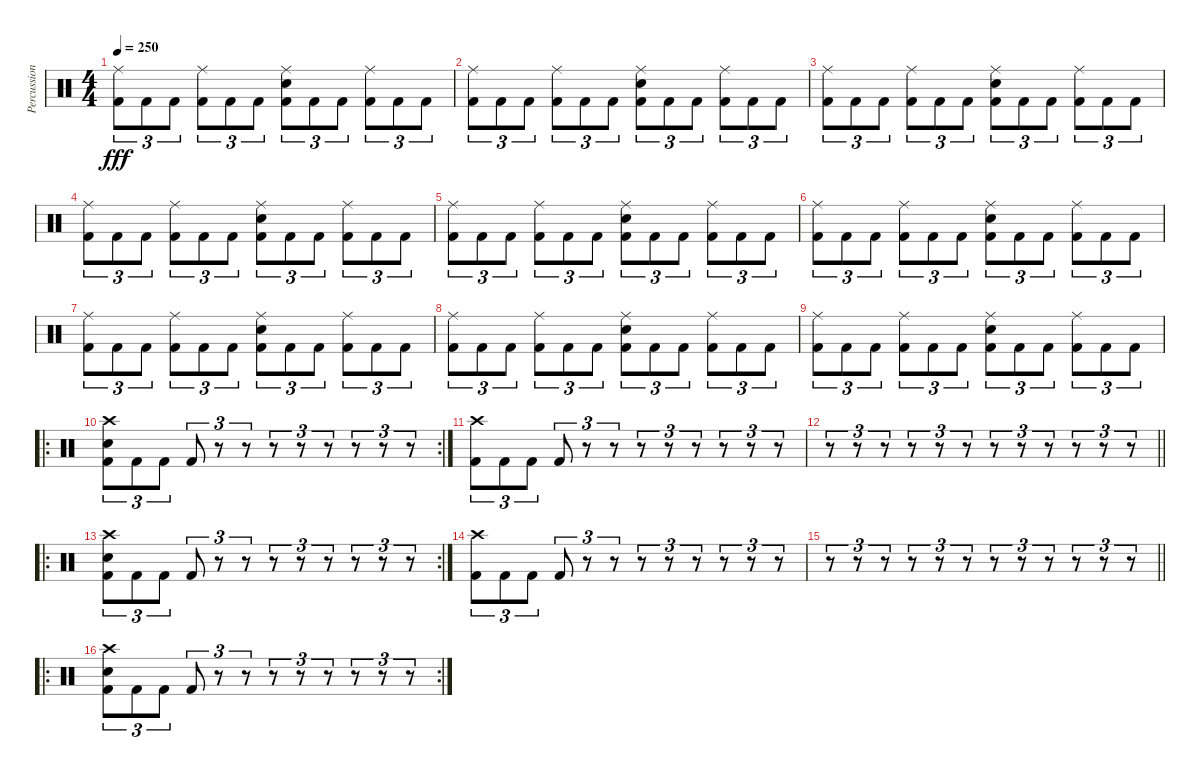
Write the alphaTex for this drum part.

\track ("Percussion" "Percussion") {instrument percussion}
\staff {score}
\articulation defaults
\ts (4 4)
\tempo 250
\clef neutral
\ks c
("Ride (middle)" "Kick (hit) 2").8{tu (3 2) dy fff} "Kick (hit) 2".8{tu (3 2)} "Kick (hit) 2".8{tu (3 2)} ("Ride (middle)" "Kick (hit) 2").8{tu (3 2)} "Kick (hit) 2".8{tu (3 2)} "Kick (hit) 2".8{tu (3 2)} ("Ride (middle)" "Electric Snare (hit)" "Kick (hit) 2").8{tu (3 2)} "Kick (hit) 2".8{tu (3 2)} "Kick (hit) 2".8{tu (3 2)} ("Ride (middle)" "Kick (hit) 2").8{tu (3 2)} "Kick (hit) 2".8{tu (3 2)} "Kick (hit) 2".8{tu (3 2)} |
("Ride (middle)" "Kick (hit) 2").8{tu (3 2)} "Kick (hit) 2".8{tu (3 2)} "Kick (hit) 2".8{tu (3 2)} ("Ride (middle)" "Kick (hit) 2").8{tu (3 2)} "Kick (hit) 2".8{tu (3 2)} "Kick (hit) 2".8{tu (3 2)} ("Ride (middle)" "Electric Snare (hit)" "Kick (hit) 2").8{tu (3 2)} "Kick (hit) 2".8{tu (3 2)} "Kick (hit) 2".8{tu (3 2)} ("Ride (middle)" "Kick (hit) 2").8{tu (3 2)} "Kick (hit) 2".8{tu (3 2)} "Kick (hit) 2".8{tu (3 2)} |
("Ride (middle)" "Kick (hit) 2").8{tu (3 2)} "Kick (hit) 2".8{tu (3 2)} "Kick (hit) 2".8{tu (3 2)} ("Ride (middle)" "Kick (hit) 2").8{tu (3 2)} "Kick (hit) 2".8{tu (3 2)} "Kick (hit) 2".8{tu (3 2)} ("Ride (middle)" "Electric Snare (hit)" "Kick (hit) 2").8{tu (3 2)} "Kick (hit) 2".8{tu (3 2)} "Kick (hit) 2".8{tu (3 2)} ("Ride (middle)" "Kick (hit) 2").8{tu (3 2)} "Kick (hit) 2".8{tu (3 2)} "Kick (hit) 2".8{tu (3 2)} |
("Ride (middle)" "Kick (hit) 2").8{tu (3 2)} "Kick (hit) 2".8{tu (3 2)} "Kick (hit) 2".8{tu (3 2)} ("Ride (middle)" "Kick (hit) 2").8{tu (3 2)} "Kick (hit) 2".8{tu (3 2)} "Kick (hit) 2".8{tu (3 2)} ("Ride (middle)" "Electric Snare (hit)" "Kick (hit) 2").8{tu (3 2)} "Kick (hit) 2".8{tu (3 2)} "Kick (hit) 2".8{tu (3 2)} ("Ride (middle)" "Kick (hit) 2").8{tu (3 2)} "Kick (hit) 2".8{tu (3 2)} "Kick (hit) 2".8{tu (3 2)} |
("Ride (middle)" "Kick (hit) 2").8{tu (3 2)} "Kick (hit) 2".8{tu (3 2)} "Kick (hit) 2".8{tu (3 2)} ("Ride (middle)" "Kick (hit) 2").8{tu (3 2)} "Kick (hit) 2".8{tu (3 2)} "Kick (hit) 2".8{tu (3 2)} ("Ride (middle)" "Electric Snare (hit)" "Kick (hit) 2").8{tu (3 2)} "Kick (hit) 2".8{tu (3 2)} "Kick (hit) 2".8{tu (3 2)} ("Ride (middle)" "Kick (hit) 2").8{tu (3 2)} "Kick (hit) 2".8{tu (3 2)} "Kick (hit) 2".8{tu (3 2)} |
("Ride (middle)" "Kick (hit) 2").8{tu (3 2)} "Kick (hit) 2".8{tu (3 2)} "Kick (hit) 2".8{tu (3 2)} ("Ride (middle)" "Kick (hit) 2").8{tu (3 2)} "Kick (hit) 2".8{tu (3 2)} "Kick (hit) 2".8{tu (3 2)} ("Ride (middle)" "Electric Snare (hit)" "Kick (hit) 2").8{tu (3 2)} "Kick (hit) 2".8{tu (3 2)} "Kick (hit) 2".8{tu (3 2)} ("Ride (middle)" "Kick (hit) 2").8{tu (3 2)} "Kick (hit) 2".8{tu (3 2)} "Kick (hit) 2".8{tu (3 2)} |
("Ride (middle)" "Kick (hit) 2").8{tu (3 2)} "Kick (hit) 2".8{tu (3 2)} "Kick (hit) 2".8{tu (3 2)} ("Ride (middle)" "Kick (hit) 2").8{tu (3 2)} "Kick (hit) 2".8{tu (3 2)} "Kick (hit) 2".8{tu (3 2)} ("Ride (middle)" "Electric Snare (hit)" "Kick (hit) 2").8{tu (3 2)} "Kick (hit) 2".8{tu (3 2)} "Kick (hit) 2".8{tu (3 2)} ("Ride (middle)" "Kick (hit) 2").8{tu (3 2)} "Kick (hit) 2".8{tu (3 2)} "Kick (hit) 2".8{tu (3 2)} |
("Ride (middle)" "Kick (hit) 2").8{tu (3 2)} "Kick (hit) 2".8{tu (3 2)} "Kick (hit) 2".8{tu (3 2)} ("Ride (middle)" "Kick (hit) 2").8{tu (3 2)} "Kick (hit) 2".8{tu (3 2)} "Kick (hit) 2".8{tu (3 2)} ("Ride (middle)" "Electric Snare (hit)" "Kick (hit) 2").8{tu (3 2)} "Kick (hit) 2".8{tu (3 2)} "Kick (hit) 2".8{tu (3 2)} ("Ride (middle)" "Kick (hit) 2").8{tu (3 2)} "Kick (hit) 2".8{tu (3 2)} "Kick (hit) 2".8{tu (3 2)} |
("Ride (middle)" "Kick (hit) 2").8{tu (3 2)} "Kick (hit) 2".8{tu (3 2)} "Kick (hit) 2".8{tu (3 2)} ("Ride (middle)" "Kick (hit) 2").8{tu (3 2)} "Kick (hit) 2".8{tu (3 2)} "Kick (hit) 2".8{tu (3 2)} ("Ride (middle)" "Electric Snare (hit)" "Kick (hit) 2").8{tu (3 2)} "Kick (hit) 2".8{tu (3 2)} "Kick (hit) 2".8{tu (3 2)} ("Ride (middle)" "Kick (hit) 2").8{tu (3 2)} "Kick (hit) 2".8{tu (3 2)} "Kick (hit) 2".8{tu (3 2)} |
\ro
\rc 2
("Crash high (hit)" "Electric Snare (hit)" "Kick (hit) 2").8{tu (3 2)} "Kick (hit) 2".8{tu (3 2)} "Kick (hit) 2".8{tu (3 2)} "Kick (hit) 2".8{tu (3 2)} r.8{tu (3 2)} r.8{tu (3 2)} r.8{tu (3 2)} r.8{tu (3 2)} r.8{tu (3 2)} r.8{tu (3 2)} r.8{tu (3 2)} r.8{tu (3 2)} |
("Crash high (hit)" "Kick (hit) 2").8{tu (3 2)} "Kick (hit) 2".8{tu (3 2)} "Kick (hit) 2".8{tu (3 2)} "Kick (hit) 2".8{tu (3 2)} r.8{tu (3 2)} r.8{tu (3 2)} r.8{tu (3 2)} r.8{tu (3 2)} r.8{tu (3 2)} r.8{tu (3 2)} r.8{tu (3 2)} r.8{tu (3 2)} |
\barLineRight lightlight
r.8{tu (3 2)} r.8{tu (3 2)} r.8{tu (3 2)} r.8{tu (3 2)} r.8{tu (3 2)} r.8{tu (3 2)} r.8{tu (3 2)} r.8{tu (3 2)} r.8{tu (3 2)} r.8{tu (3 2)} r.8{tu (3 2)} r.8{tu (3 2)} |
\ro
\rc 2
("Crash high (hit)" "Electric Snare (hit)" "Kick (hit) 2").8{tu (3 2)} "Kick (hit) 2".8{tu (3 2)} "Kick (hit) 2".8{tu (3 2)} "Kick (hit) 2".8{tu (3 2)} r.8{tu (3 2)} r.8{tu (3 2)} r.8{tu (3 2)} r.8{tu (3 2)} r.8{tu (3 2)} r.8{tu (3 2)} r.8{tu (3 2)} r.8{tu (3 2)} |
("Crash high (hit)" "Kick (hit) 2").8{tu (3 2)} "Kick (hit) 2".8{tu (3 2)} "Kick (hit) 2".8{tu (3 2)} "Kick (hit) 2".8{tu (3 2)} r.8{tu (3 2)} r.8{tu (3 2)} r.8{tu (3 2)} r.8{tu (3 2)} r.8{tu (3 2)} r.8{tu (3 2)} r.8{tu (3 2)} r.8{tu (3 2)} |
\barLineRight lightlight
r.8{tu (3 2)} r.8{tu (3 2)} r.8{tu (3 2)} r.8{tu (3 2)} r.8{tu (3 2)} r.8{tu (3 2)} r.8{tu (3 2)} r.8{tu (3 2)} r.8{tu (3 2)} r.8{tu (3 2)} r.8{tu (3 2)} r.8{tu (3 2)} |
\ro
\rc 2
("Crash high (hit)" "Electric Snare (hit)" "Kick (hit) 2").8{tu (3 2)} "Kick (hit) 2".8{tu (3 2)} "Kick (hit) 2".8{tu (3 2)} "Kick (hit) 2".8{tu (3 2)} r.8{tu (3 2)} r.8{tu (3 2)} r.8{tu (3 2)} r.8{tu (3 2)} r.8{tu (3 2)} r.8{tu (3 2)} r.8{tu (3 2)} r.8{tu (3 2)}
